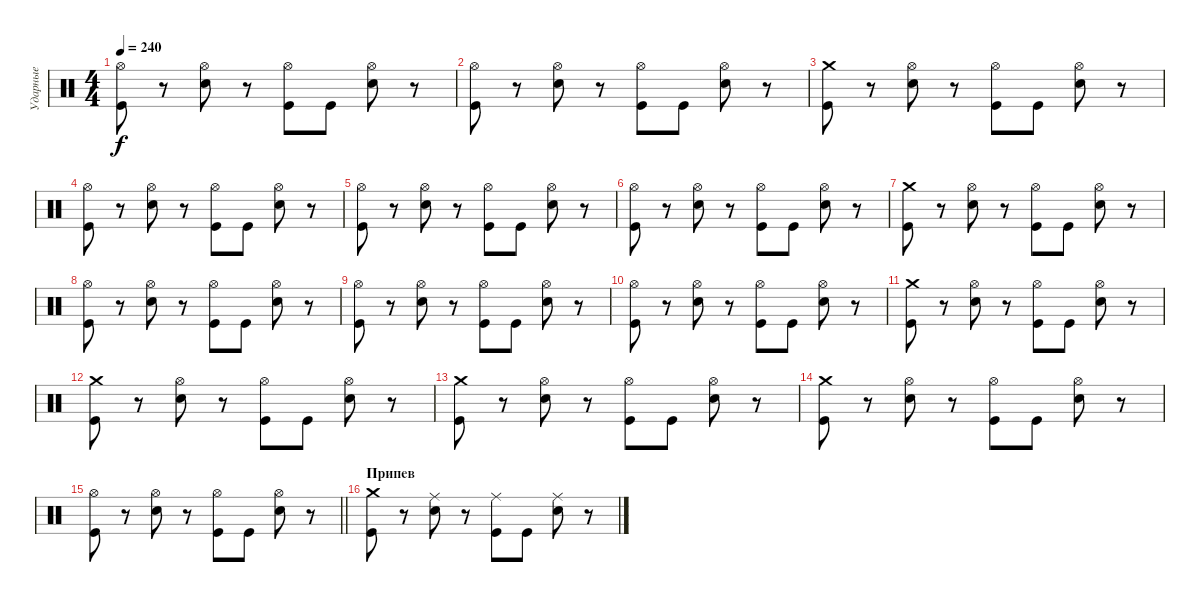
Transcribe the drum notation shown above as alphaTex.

\track ("Ударные" "Ударные") {instrument percussion}
\staff {score}
\articulation defaults
\ts (4 4)
\tempo 240
\clef neutral
\ks c
("Hi-Hat (open)" "Kick (hit)").8{dy f} r.8 ("Hi-Hat (open)" "Electric Snare (hit)").8 r.8 ("Hi-Hat (open)" "Kick (hit)").8 "Kick (hit)".8 ("Hi-Hat (open)" "Electric Snare (hit)").8 r.8 |
("Hi-Hat (open)" "Kick (hit)").8 r.8 ("Hi-Hat (open)" "Electric Snare (hit)").8 r.8 ("Hi-Hat (open)" "Kick (hit)").8 "Kick (hit)".8 ("Hi-Hat (open)" "Electric Snare (hit)").8 r.8 |
("Crash medium (hit)" "Kick (hit)").8 r.8 ("Hi-Hat (open)" "Electric Snare (hit)").8 r.8 ("Hi-Hat (open)" "Kick (hit)").8 "Kick (hit)".8 ("Hi-Hat (open)" "Electric Snare (hit)").8 r.8 |
("Hi-Hat (open)" "Kick (hit)").8 r.8 ("Hi-Hat (open)" "Electric Snare (hit)").8 r.8 ("Hi-Hat (open)" "Kick (hit)").8 "Kick (hit)".8 ("Hi-Hat (open)" "Electric Snare (hit)").8 r.8 |
("Hi-Hat (open)" "Kick (hit)").8 r.8 ("Hi-Hat (open)" "Electric Snare (hit)").8 r.8 ("Hi-Hat (open)" "Kick (hit)").8 "Kick (hit)".8 ("Hi-Hat (open)" "Electric Snare (hit)").8 r.8 |
("Hi-Hat (open)" "Kick (hit)").8 r.8 ("Hi-Hat (open)" "Electric Snare (hit)").8 r.8 ("Hi-Hat (open)" "Kick (hit)").8 "Kick (hit)".8 ("Hi-Hat (open)" "Electric Snare (hit)").8 r.8 |
("Crash medium (hit)" "Kick (hit)").8 r.8 ("Hi-Hat (open)" "Electric Snare (hit)").8 r.8 ("Hi-Hat (open)" "Kick (hit)").8 "Kick (hit)".8 ("Hi-Hat (open)" "Electric Snare (hit)").8 r.8 |
("Hi-Hat (open)" "Kick (hit)").8 r.8 ("Hi-Hat (open)" "Electric Snare (hit)").8 r.8 ("Hi-Hat (open)" "Kick (hit)").8 "Kick (hit)".8 ("Hi-Hat (open)" "Electric Snare (hit)").8 r.8 |
("Hi-Hat (open)" "Kick (hit)").8 r.8 ("Hi-Hat (open)" "Electric Snare (hit)").8 r.8 ("Hi-Hat (open)" "Kick (hit)").8 "Kick (hit)".8 ("Hi-Hat (open)" "Electric Snare (hit)").8 r.8 |
("Hi-Hat (open)" "Kick (hit)").8 r.8 ("Hi-Hat (open)" "Electric Snare (hit)").8 r.8 ("Hi-Hat (open)" "Kick (hit)").8 "Kick (hit)".8 ("Hi-Hat (open)" "Electric Snare (hit)").8 r.8 |
("Crash medium (hit)" "Kick (hit)").8 r.8 ("Hi-Hat (open)" "Electric Snare (hit)").8 r.8 ("Hi-Hat (open)" "Kick (hit)").8 "Kick (hit)".8 ("Hi-Hat (open)" "Electric Snare (hit)").8 r.8 |
("Crash medium (hit)" "Kick (hit)").8 r.8 ("Hi-Hat (open)" "Electric Snare (hit)").8 r.8 ("Hi-Hat (open)" "Kick (hit)").8 "Kick (hit)".8 ("Hi-Hat (open)" "Electric Snare (hit)").8 r.8 |
("Crash medium (hit)" "Kick (hit)").8 r.8 ("Hi-Hat (open)" "Electric Snare (hit)").8 r.8 ("Hi-Hat (open)" "Kick (hit)").8 "Kick (hit)".8 ("Hi-Hat (open)" "Electric Snare (hit)").8 r.8 |
("Crash medium (hit)" "Kick (hit)").8 r.8 ("Hi-Hat (open)" "Electric Snare (hit)").8 r.8 ("Hi-Hat (open)" "Kick (hit)").8 "Kick (hit)".8 ("Hi-Hat (open)" "Electric Snare (hit)").8 r.8 |
\barLineRight lightlight
("Hi-Hat (open)" "Kick (hit)").8 r.8 ("Hi-Hat (open)" "Electric Snare (hit)").8 r.8 ("Hi-Hat (open)" "Kick (hit)").8 "Kick (hit)".8 ("Hi-Hat (open)" "Electric Snare (hit)").8 r.8 |
\section ("" "Припев")
("Crash medium (hit)" "Kick (hit)").8 r.8 ("Ride (middle)" "Electric Snare (hit)").8 r.8 ("Ride (middle)" "Kick (hit)").8 "Kick (hit)".8 ("Ride (middle)" "Electric Snare (hit)").8 r.8
